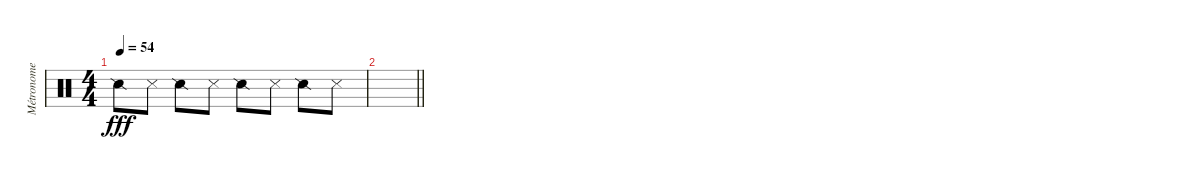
\track ("Métronome" "Métronome") {mute instrument percussion}
\staff {score}
\articulation defaults
\ts (4 4)
\tempo 54
\clef neutral
\ks c "Snare (side stick) 2".8{dy fff} "Metronome (hit)".8 "Snare (side stick) 2".8 "Metronome (hit)".8 "Snare (side stick) 2".8 "Metronome (hit)".8 "Snare (side stick) 2".8 "Metronome (hit)".8
|
\barLineRight lightlight
